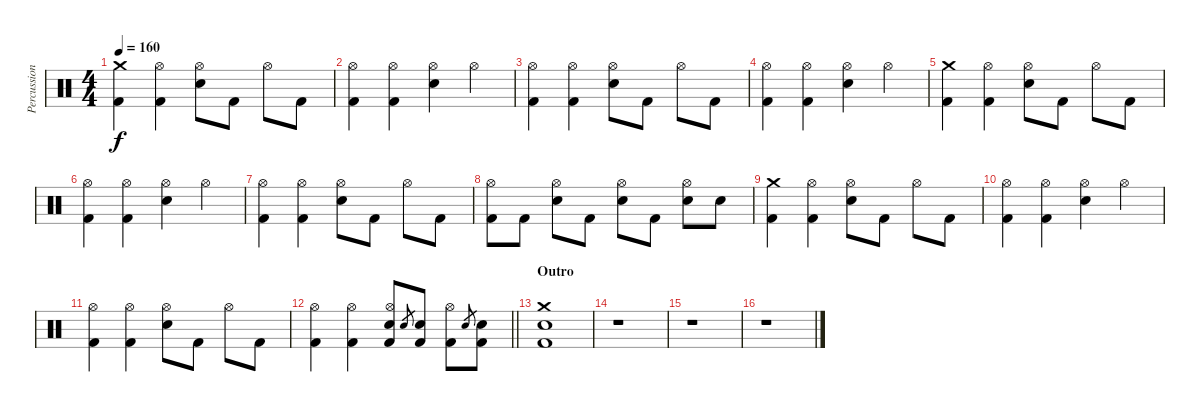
\track ("Percussion" "Percussion") {instrument percussion}
\staff {score}
\articulation defaults
\ts (4 4)
\tempo 160
\clef neutral
\ks c
("Crash medium (hit)" "Kick (hit) 2").4{dy f} ("Hi-Hat (open)" "Kick (hit) 2").4 ("Electric Snare (hit)" "Hi-Hat (open)").8 "Kick (hit) 2".8 "Hi-Hat (open)".8 "Kick (hit) 2".8 |
("Hi-Hat (open)" "Kick (hit) 2").4 ("Hi-Hat (open)" "Kick (hit) 2").4 ("Electric Snare (hit)" "Hi-Hat (open)").4 "Hi-Hat (open)".4 |
("Hi-Hat (open)" "Kick (hit) 2").4 ("Hi-Hat (open)" "Kick (hit) 2").4 ("Electric Snare (hit)" "Hi-Hat (open)").8 "Kick (hit) 2".8 "Hi-Hat (open)".8 "Kick (hit) 2".8 |
("Hi-Hat (open)" "Kick (hit) 2").4 ("Hi-Hat (open)" "Kick (hit) 2").4 ("Electric Snare (hit)" "Hi-Hat (open)").4 "Hi-Hat (open)".4 |
("Crash medium (hit)" "Kick (hit) 2").4 ("Hi-Hat (open)" "Kick (hit) 2").4 ("Electric Snare (hit)" "Hi-Hat (open)").8 "Kick (hit) 2".8 "Hi-Hat (open)".8 "Kick (hit) 2".8 |
("Hi-Hat (open)" "Kick (hit) 2").4 ("Hi-Hat (open)" "Kick (hit) 2").4 ("Electric Snare (hit)" "Hi-Hat (open)").4 "Hi-Hat (open)".4 |
("Hi-Hat (open)" "Kick (hit) 2").4 ("Hi-Hat (open)" "Kick (hit) 2").4 ("Electric Snare (hit)" "Hi-Hat (open)").8 "Kick (hit) 2".8 "Hi-Hat (open)".8 "Kick (hit) 2".8 |
("Hi-Hat (open)" "Kick (hit) 2").8 "Kick (hit) 2".8 ("Hi-Hat (open)" "Electric Snare (hit)").8 "Kick (hit) 2".8 ("Hi-Hat (open)" "Electric Snare (hit)").8 "Kick (hit) 2".8 ("Hi-Hat (open)" "Electric Snare (hit)").8 "Electric Snare (hit)".8 |
("Crash medium (hit)" "Kick (hit) 2").4 ("Hi-Hat (open)" "Kick (hit) 2").4 ("Electric Snare (hit)" "Hi-Hat (open)").8 "Kick (hit) 2".8 "Hi-Hat (open)".8 "Kick (hit) 2".8 |
("Hi-Hat (open)" "Kick (hit) 2").4 ("Hi-Hat (open)" "Kick (hit) 2").4 ("Electric Snare (hit)" "Hi-Hat (open)").4 "Hi-Hat (open)".4 |
("Hi-Hat (open)" "Kick (hit) 2").4 ("Hi-Hat (open)" "Kick (hit) 2").4 ("Electric Snare (hit)" "Hi-Hat (open)").8 "Kick (hit) 2".8 "Hi-Hat (open)".8 "Kick (hit) 2".8 |
\barLineRight lightlight
("Hi-Hat (open)" "Kick (hit) 2").4 ("Hi-Hat (open)" "Kick (hit) 2").4 ("Electric Snare (hit)" "Hi-Hat (open)" "Kick (hit) 2").8 "Electric Snare (hit)".8{gr} ("Electric Snare (hit)" "Kick (hit) 2").8 ("Hi-Hat (open)" "Kick (hit) 2").8 "Electric Snare (hit)".8{gr} ("Electric Snare (hit)" "Kick (hit) 2").8 |
\section ("" "Outro")
("Crash medium (hit)" "Electric Snare (hit)" "Kick (hit) 2").1 |
r.1 |
r.1 |
r.1
